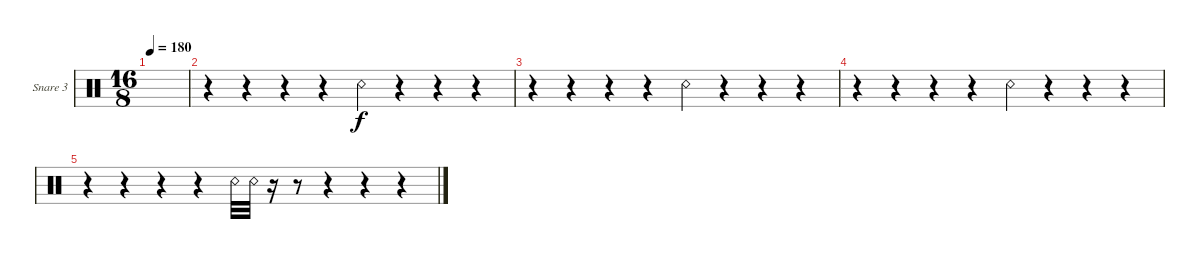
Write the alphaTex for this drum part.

\defaultSystemsLayout 4
\bracketExtendMode groupsimilarinstruments
\firstSystemTrackNameOrientation horizontal
\otherSystemsTrackNameOrientation horizontal
\track ("Snare 3" "Snare 3") {instrument percussion}
\staff {score}
\articulation defaults
\ts (16 8)
\tempo 180
\clef neutral
\ks c
|
r.4 r.4 r.4 r.4 "Snare (rim shot)".4 r.4 r.4 r.4 |
r.4 r.4 r.4 r.4 "Snare (rim shot)".4 r.4 r.4 r.4 |
r.4 r.4 r.4 r.4 "Snare (rim shot)".4 r.4 r.4 r.4 |
r.4 r.4 r.4 r.4 "Snare (rim shot)".32 "Snare (rim shot)".32 r.16 r.8 r.4 r.4 r.4
